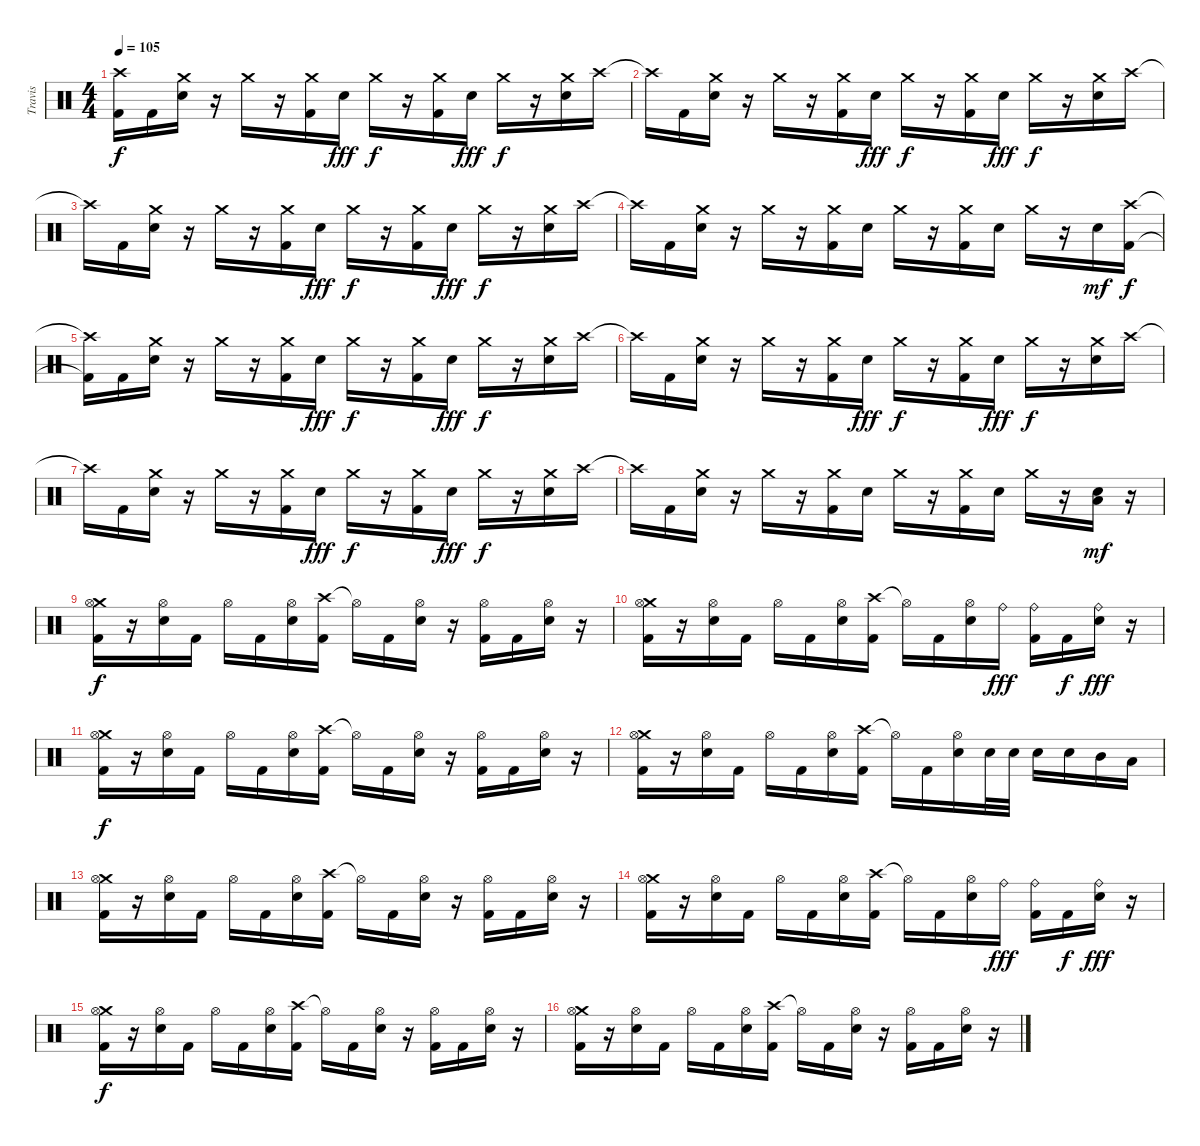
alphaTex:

\track ("Travis" "Travis") {instrument percussion}
\staff {score}
\articulation defaults
\ts (4 4)
\tempo 105
\clef neutral
\ks c
("Crash high (hit)"{t} "Kick (hit) 2"{t}).16{dy f} "Kick (hit) 2".16 ("Crash medium (hit)" "Electric Snare (hit)").16 r.16 "Crash medium (hit)".16 r.16 ("Crash medium (hit)" "Kick (hit) 2").16 "Electric Snare (hit)".16{dy fff} "Crash medium (hit)".16{dy f} r.16 ("Crash medium (hit)" "Kick (hit) 2").16 "Electric Snare (hit)".16{dy fff} "Crash medium (hit)".16{dy f} r.16 ("Crash medium (hit)" "Electric Snare (hit)").16 "Crash high (hit)".16 |
"Crash high (hit)"{t}.16 "Kick (hit) 2".16 ("Crash medium (hit)" "Electric Snare (hit)").16 r.16 "Crash medium (hit)".16 r.16 ("Crash medium (hit)" "Kick (hit) 2").16 "Electric Snare (hit)".16{dy fff} "Crash medium (hit)".16{dy f} r.16 ("Crash medium (hit)" "Kick (hit) 2").16 "Electric Snare (hit)".16{dy fff} "Crash medium (hit)".16{dy f} r.16 ("Crash medium (hit)" "Electric Snare (hit)").16 "Crash high (hit)".16 |
"Crash high (hit)"{t}.16 "Kick (hit) 2".16 ("Crash medium (hit)" "Electric Snare (hit)").16 r.16 "Crash medium (hit)".16 r.16 ("Crash medium (hit)" "Kick (hit) 2").16 "Electric Snare (hit)".16{dy fff} "Crash medium (hit)".16{dy f} r.16 ("Crash medium (hit)" "Kick (hit) 2").16 "Electric Snare (hit)".16{dy fff} "Crash medium (hit)".16{dy f} r.16 ("Crash medium (hit)" "Electric Snare (hit)").16 "Crash high (hit)".16 |
"Crash high (hit)"{t}.16 "Kick (hit) 2".16 ("Crash medium (hit)" "Electric Snare (hit)").16 r.16 "Crash medium (hit)".16 r.16 ("Crash medium (hit)" "Kick (hit) 2").16 "Electric Snare (hit)".16 "Crash medium (hit)".16 r.16 ("Crash medium (hit)" "Kick (hit) 2").16 "Electric Snare (hit)".16 "Crash medium (hit)".16 r.16 "Electric Snare (hit)".16{dy mf} ("Crash high (hit)" "Kick (hit) 2").16{dy f} |
("Crash high (hit)"{t} "Kick (hit) 2"{t}).16 "Kick (hit) 2".16 ("Crash medium (hit)" "Electric Snare (hit)").16 r.16 "Crash medium (hit)".16 r.16 ("Crash medium (hit)" "Kick (hit) 2").16 "Electric Snare (hit)".16{dy fff} "Crash medium (hit)".16{dy f} r.16 ("Crash medium (hit)" "Kick (hit) 2").16 "Electric Snare (hit)".16{dy fff} "Crash medium (hit)".16{dy f} r.16 ("Crash medium (hit)" "Electric Snare (hit)").16 "Crash high (hit)".16 |
"Crash high (hit)"{t}.16 "Kick (hit) 2".16 ("Crash medium (hit)" "Electric Snare (hit)").16 r.16 "Crash medium (hit)".16 r.16 ("Crash medium (hit)" "Kick (hit) 2").16 "Electric Snare (hit)".16{dy fff} "Crash medium (hit)".16{dy f} r.16 ("Crash medium (hit)" "Kick (hit) 2").16 "Electric Snare (hit)".16{dy fff} "Crash medium (hit)".16{dy f} r.16 ("Crash medium (hit)" "Electric Snare (hit)").16 "Crash high (hit)".16 |
"Crash high (hit)"{t}.16 "Kick (hit) 2".16 ("Crash medium (hit)" "Electric Snare (hit)").16 r.16 "Crash medium (hit)".16 r.16 ("Crash medium (hit)" "Kick (hit) 2").16 "Electric Snare (hit)".16{dy fff} "Crash medium (hit)".16{dy f} r.16 ("Crash medium (hit)" "Kick (hit) 2").16 "Electric Snare (hit)".16{dy fff} "Crash medium (hit)".16{dy f} r.16 ("Crash medium (hit)" "Electric Snare (hit)").16 "Crash high (hit)".16 |
"Crash high (hit)"{t}.16 "Kick (hit) 2".16 ("Crash medium (hit)" "Electric Snare (hit)").16 r.16 "Crash medium (hit)".16 r.16 ("Crash medium (hit)" "Kick (hit) 2").16 "Electric Snare (hit)".16 "Crash medium (hit)".16 r.16 ("Crash medium (hit)" "Kick (hit) 2").16 "Electric Snare (hit)".16 "Crash medium (hit)".16 r.16 ("Low Tom (hit)" "Electric Snare (hit)").16{dy mf} r.16 |
("Crash medium (hit)" "Hi-Hat (open)" "Kick (hit) 2").16{dy f} r.16 ("Hi-Hat (open)" "Electric Snare (hit)").16 "Kick (hit) 2".16 "Hi-Hat (open)".16 "Kick (hit) 2".16 ("Hi-Hat (open)" "Electric Snare (hit)").16 ("Crash high (hit)" "Kick (hit) 2").16 "Hi-Hat (open)"{t}.16 "Kick (hit) 2".16 ("Hi-Hat (open)" "Electric Snare (hit)").16 r.16 ("Hi-Hat (open)" "Kick (hit) 2").16 "Kick (hit) 2".16 ("Hi-Hat (open)" "Electric Snare (hit)").16 r.16 |
("Crash medium (hit)" "Hi-Hat (open)" "Kick (hit) 2").16 r.16 ("Hi-Hat (open)" "Electric Snare (hit)").16 "Kick (hit) 2".16 "Hi-Hat (open)".16 "Kick (hit) 2".16 ("Hi-Hat (open)" "Electric Snare (hit)").16 ("Crash high (hit)" "Kick (hit) 2").16 "Hi-Hat (open)"{t}.16 "Kick (hit) 2".16 ("Hi-Hat (open)" "Electric Snare (hit)").16 "Ride (bell)".16{dy fff} ("Ride (bell)" "Kick (hit) 2").16 "Kick (hit) 2".16{dy f} ("Ride (bell)" "Electric Snare (hit)").16{dy fff} r.16 |
("Crash medium (hit)" "Hi-Hat (open)" "Kick (hit) 2").16{dy f} r.16 ("Hi-Hat (open)" "Electric Snare (hit)").16 "Kick (hit) 2".16 "Hi-Hat (open)".16 "Kick (hit) 2".16 ("Hi-Hat (open)" "Electric Snare (hit)").16 ("Crash high (hit)" "Kick (hit) 2").16 "Hi-Hat (open)"{t}.16 "Kick (hit) 2".16 ("Hi-Hat (open)" "Electric Snare (hit)").16 r.16 ("Hi-Hat (open)" "Kick (hit) 2").16 "Kick (hit) 2".16 ("Hi-Hat (open)" "Electric Snare (hit)").16 r.16 |
("Crash medium (hit)" "Hi-Hat (open)" "Kick (hit) 2").16 r.16 ("Hi-Hat (open)" "Electric Snare (hit)").16 "Kick (hit) 2".16 "Hi-Hat (open)".16 "Kick (hit) 2".16 ("Hi-Hat (open)" "Electric Snare (hit)").16 ("Crash high (hit)" "Kick (hit) 2").16 "Hi-Hat (open)"{t}.16 "Kick (hit) 2".16 ("Hi-Hat (open)" "Electric Snare (hit)").16 "Electric Snare (hit)".32 "Electric Snare (hit)".32 "Electric Snare (hit)".16 "Electric Snare (hit)".16 "Mid Tom (hit)".16 "Low Tom (hit)".16 |
("Crash medium (hit)" "Hi-Hat (open)" "Kick (hit) 2").16 r.16 ("Hi-Hat (open)" "Electric Snare (hit)").16 "Kick (hit) 2".16 "Hi-Hat (open)".16 "Kick (hit) 2".16 ("Hi-Hat (open)" "Electric Snare (hit)").16 ("Crash high (hit)" "Kick (hit) 2").16 "Hi-Hat (open)"{t}.16 "Kick (hit) 2".16 ("Hi-Hat (open)" "Electric Snare (hit)").16 r.16 ("Hi-Hat (open)" "Kick (hit) 2").16 "Kick (hit) 2".16 ("Hi-Hat (open)" "Electric Snare (hit)").16 r.16 |
("Crash medium (hit)" "Hi-Hat (open)" "Kick (hit) 2").16 r.16 ("Hi-Hat (open)" "Electric Snare (hit)").16 "Kick (hit) 2".16 "Hi-Hat (open)".16 "Kick (hit) 2".16 ("Hi-Hat (open)" "Electric Snare (hit)").16 ("Crash high (hit)" "Kick (hit) 2").16 "Hi-Hat (open)"{t}.16 "Kick (hit) 2".16 ("Hi-Hat (open)" "Electric Snare (hit)").16 "Ride (bell)".16{dy fff} ("Ride (bell)" "Kick (hit) 2").16 "Kick (hit) 2".16{dy f} ("Ride (bell)" "Electric Snare (hit)").16{dy fff} r.16 |
("Crash medium (hit)" "Hi-Hat (open)" "Kick (hit) 2").16{dy f} r.16 ("Hi-Hat (open)" "Electric Snare (hit)").16 "Kick (hit) 2".16 "Hi-Hat (open)".16 "Kick (hit) 2".16 ("Hi-Hat (open)" "Electric Snare (hit)").16 ("Crash high (hit)" "Kick (hit) 2").16 "Hi-Hat (open)"{t}.16 "Kick (hit) 2".16 ("Hi-Hat (open)" "Electric Snare (hit)").16 r.16 ("Hi-Hat (open)" "Kick (hit) 2").16 "Kick (hit) 2".16 ("Hi-Hat (open)" "Electric Snare (hit)").16 r.16 |
("Crash medium (hit)" "Hi-Hat (open)" "Kick (hit) 2").16 r.16 ("Hi-Hat (open)" "Electric Snare (hit)").16 "Kick (hit) 2".16 "Hi-Hat (open)".16 "Kick (hit) 2".16 ("Hi-Hat (open)" "Electric Snare (hit)").16 ("Crash high (hit)" "Kick (hit) 2").16 "Hi-Hat (open)"{t}.16 "Kick (hit) 2".16 ("Hi-Hat (open)" "Electric Snare (hit)").16 r.16 ("Hi-Hat (open)" "Kick (hit) 2").16 "Kick (hit) 2".16 ("Hi-Hat (open)" "Electric Snare (hit)").16 r.16
